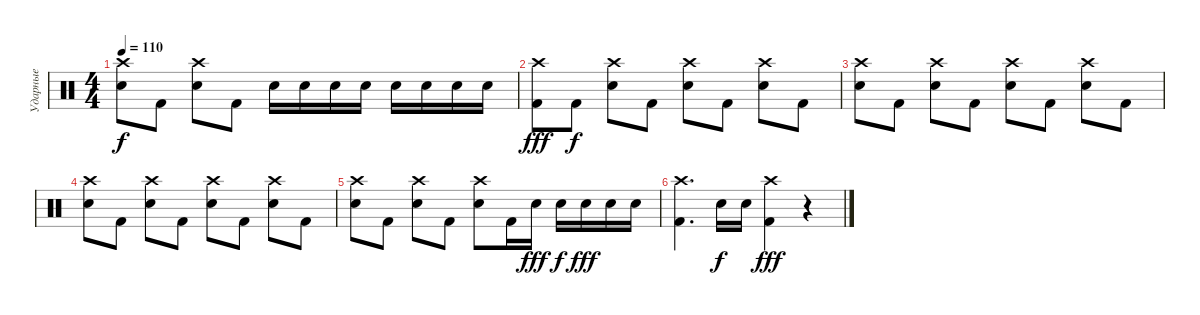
\track ("Ударные" "Ударные") {instrument percussion}
\staff
\articulation defaults
\ts (4 4)
\tempo 110
\clef neutral
\ks c
("Snare (hit) 2" "Crash high (hit)").8{dy f} "Kick (hit) 2".8 ("Snare (hit) 2" "Crash high (hit)").8 "Kick (hit) 2".8 "Snare (hit) 2".16 "Snare (hit) 2".16 "Snare (hit) 2".16 "Snare (hit) 2".16 "Snare (hit) 2".16 "Snare (hit) 2".16 "Snare (hit) 2".16 "Snare (hit) 2".16 |
("Kick (hit) 2" "Crash high (hit)").8{dy fff} "Kick (hit) 2".8{dy f} ("Snare (hit) 2" "Crash high (hit)").8 "Kick (hit) 2".8 ("Snare (hit) 2" "Crash high (hit)").8 "Kick (hit) 2".8 ("Snare (hit) 2" "Crash high (hit)").8 "Kick (hit) 2".8 |
("Snare (hit) 2" "Crash high (hit)").8 "Kick (hit) 2".8 ("Snare (hit) 2" "Crash high (hit)").8 "Kick (hit) 2".8 ("Snare (hit) 2" "Crash high (hit)").8 "Kick (hit) 2".8 ("Snare (hit) 2" "Crash high (hit)").8 "Kick (hit) 2".8 |
("Snare (hit) 2" "Crash high (hit)").8 "Kick (hit) 2".8 ("Snare (hit) 2" "Crash high (hit)").8 "Kick (hit) 2".8 ("Snare (hit) 2" "Crash high (hit)").8 "Kick (hit) 2".8 ("Snare (hit) 2" "Crash high (hit)").8 "Kick (hit) 2".8 |
("Snare (hit) 2" "Crash high (hit)").8 "Kick (hit) 2".8 ("Snare (hit) 2" "Crash high (hit)").8 "Kick (hit) 2".8 ("Snare (hit) 2" "Crash high (hit)").8 "Kick (hit) 2".16 "Snare (hit) 2".16{dy fff} "Snare (hit) 2".16{dy f} "Snare (hit) 2".16{dy fff} "Snare (hit) 2".16 "Snare (hit) 2".16 |
("Kick (hit) 2" "Crash high (hit)").4{d} "Snare (hit) 2".16{dy f} "Snare (hit) 2".16 ("Kick (hit) 2" "Crash high (hit)").4{dy fff} r.4
